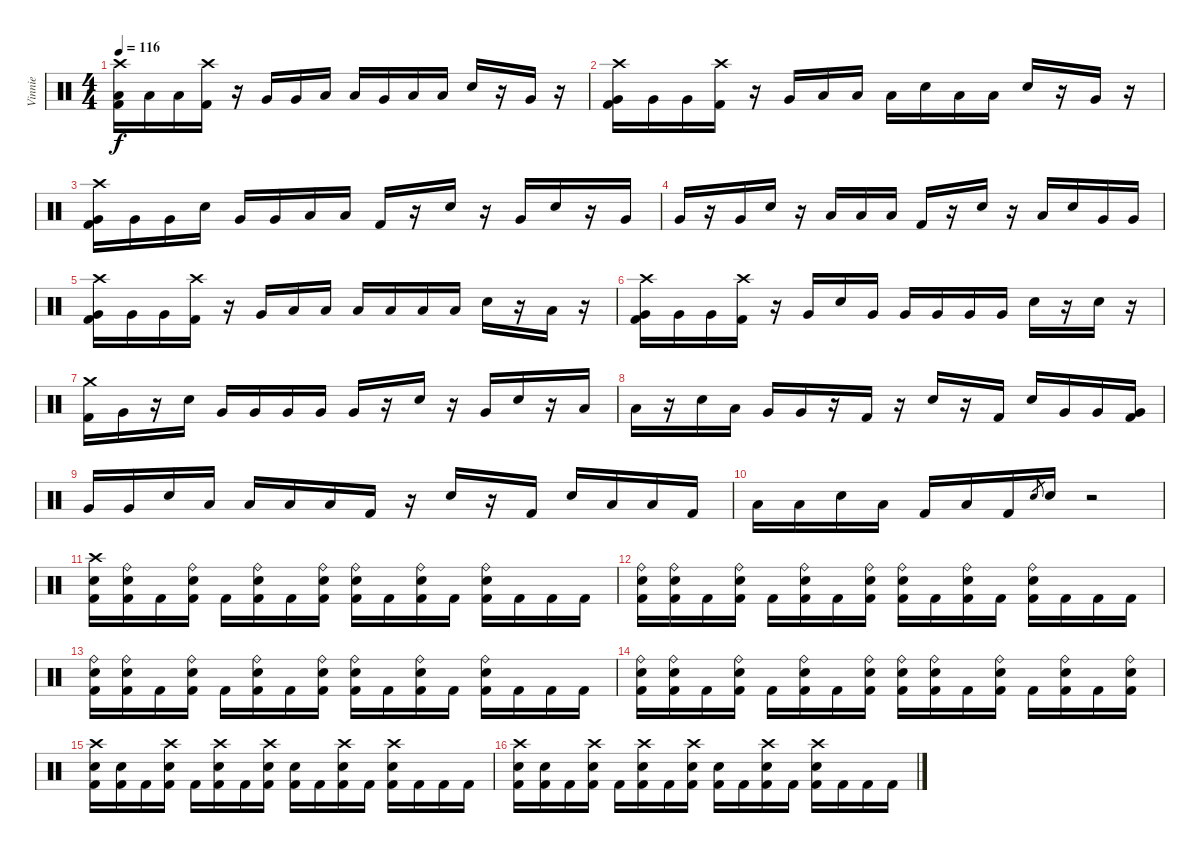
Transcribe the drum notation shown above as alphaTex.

\track ("Vinnie" "Vinnie") {instrument percussion}
\staff {score}
\articulation defaults
\ts (4 4)
\tempo 116
\clef neutral
\ks c
("Crash high (hit)" "Low Floor Tom (hit)" "Kick (hit) 2").16{dy f} "Low Floor Tom (hit)".16 "Low Floor Tom (hit)".16 ("Crash high (hit)" "Kick (hit) 2").16 r.16 "Very Low Tom (hit)".16 "Very Low Tom (hit)".16 "Low Floor Tom (hit)".16 "Low Floor Tom (hit)".16 "Very Low Tom (hit)".16 "Low Floor Tom (hit)".16 "Low Floor Tom (hit)".16 "Electric Snare (hit)".16 r.16 "Very Low Tom (hit)".16 r.16 |
("Crash high (hit)" "Very Low Tom (hit)" "Kick (hit) 2").16 "Very Low Tom (hit)".16 "Very Low Tom (hit)".16 ("Crash high (hit)" "Kick (hit) 2").16 r.16 "Very Low Tom (hit)".16 "Low Floor Tom (hit)".16 "Low Floor Tom (hit)".16 "Low Floor Tom (hit)".16 "Electric Snare (hit)".16 "Low Floor Tom (hit)".16 "Low Floor Tom (hit)".16 "Electric Snare (hit)".16 r.16 "Very Low Tom (hit)".16 r.16 |
("Crash high (hit)" "Very Low Tom (hit)" "Kick (hit) 2").16 "Very Low Tom (hit)".16 "Very Low Tom (hit)".16 "Electric Snare (hit)".16 "Very Low Tom (hit)".16 "Very Low Tom (hit)".16 "Low Floor Tom (hit)".16 "Low Floor Tom (hit)".16 "Kick (hit) 2".16 r.16 "Electric Snare (hit)".16 r.16 "Very Low Tom (hit)".16 "Electric Snare (hit)".16 r.16 "Very Low Tom (hit)".16 |
"Very Low Tom (hit)".16 r.16 "Very Low Tom (hit)".16 "Electric Snare (hit)".16 r.16 "Low Floor Tom (hit)".16 "Low Floor Tom (hit)".16 "Low Floor Tom (hit)".16 "Kick (hit) 2".16 r.16 "Electric Snare (hit)".16 r.16 "Low Floor Tom (hit)".16 "Electric Snare (hit)".16 "Very Low Tom (hit)".16 "Very Low Tom (hit)".16 |
("Crash high (hit)" "Very Low Tom (hit)" "Kick (hit) 2").16 "Very Low Tom (hit)".16 "Very Low Tom (hit)".16 ("Crash high (hit)" "Kick (hit) 2").16 r.16 "Very Low Tom (hit)".16 "Low Floor Tom (hit)".16 "Low Floor Tom (hit)".16 "Low Floor Tom (hit)".16 "Low Floor Tom (hit)".16 "Low Floor Tom (hit)".16 "Low Floor Tom (hit)".16 "Electric Snare (hit)".16 r.16 "Low Floor Tom (hit)".16 r.16 |
("Crash high (hit)" "Very Low Tom (hit)" "Kick (hit) 2").16 "Very Low Tom (hit)".16 "Very Low Tom (hit)".16 ("Crash high (hit)" "Kick (hit) 2").16 r.16 "Very Low Tom (hit)".16 "Electric Snare (hit)".16 "Very Low Tom (hit)".16 "Very Low Tom (hit)".16 "Very Low Tom (hit)".16 "Very Low Tom (hit)".16 "Very Low Tom (hit)".16 "Electric Snare (hit)".16 r.16 "Electric Snare (hit)".16 r.16 |
("Crash medium (hit)" "Kick (hit) 2").16 "Very Low Tom (hit)".16 r.16 "Electric Snare (hit)".16 "Very Low Tom (hit)".16 "Very Low Tom (hit)".16 "Very Low Tom (hit)".16 "Very Low Tom (hit)".16 "Very Low Tom (hit)".16 r.16 "Electric Snare (hit)".16 r.16 "Very Low Tom (hit)".16 "Electric Snare (hit)".16 r.16 "Low Floor Tom (hit)".16 |
"Low Floor Tom (hit)".16 r.16 "Electric Snare (hit)".16 "Low Floor Tom (hit)".16 "Very Low Tom (hit)".16 "Very Low Tom (hit)".16 r.16 "Kick (hit) 2".16 r.16 "Electric Snare (hit)".16 r.16 "Kick (hit) 2".16 "Electric Snare (hit)".16 "Very Low Tom (hit)".16 "Very Low Tom (hit)".16 ("Very Low Tom (hit)" "Kick (hit) 2").16 |
"Very Low Tom (hit)".16 "Very Low Tom (hit)".16 "Electric Snare (hit)".16 "Low Floor Tom (hit)".16 "Low Floor Tom (hit)".16 "Low Floor Tom (hit)".16 "Low Floor Tom (hit)".16 "Kick (hit) 2".16 r.16 "Electric Snare (hit)".16 r.16 "Kick (hit) 2".16 "Electric Snare (hit)".16 "Low Floor Tom (hit)".16 "Low Floor Tom (hit)".16 "Kick (hit) 2".16 |
"Low Floor Tom (hit)".16 "Low Floor Tom (hit)".16 "Electric Snare (hit)".16 "Low Floor Tom (hit)".16 "Kick (hit) 2".16 "Low Floor Tom (hit)".16 "Kick (hit) 2".16 "Electric Snare (hit)".8{gr} "Electric Snare (hit)".16 r.2 |
("Crash high (hit)" "Electric Snare (hit)" "Kick (hit) 2").16 ("Ride (bell)" "Electric Snare (hit)" "Kick (hit) 2").16 "Kick (hit) 2".16 ("Ride (bell)" "Electric Snare (hit)" "Kick (hit) 2").16 "Kick (hit) 2".16 ("Ride (bell)" "Electric Snare (hit)" "Kick (hit) 2").16 "Kick (hit) 2".16 ("Ride (bell)" "Electric Snare (hit)" "Kick (hit) 2").16 ("Ride (bell)" "Electric Snare (hit)" "Kick (hit) 2").16 "Kick (hit) 2".16 ("Ride (bell)" "Electric Snare (hit)" "Kick (hit) 2").16 "Kick (hit) 2".16 ("Ride (bell)" "Electric Snare (hit)" "Kick (hit) 2").16 "Kick (hit) 2".16 "Kick (hit) 2".16 "Kick (hit) 2".16 |
("Ride (bell)" "Electric Snare (hit)" "Kick (hit) 2").16 ("Ride (bell)" "Electric Snare (hit)" "Kick (hit) 2").16 "Kick (hit) 2".16 ("Ride (bell)" "Electric Snare (hit)" "Kick (hit) 2").16 "Kick (hit) 2".16 ("Ride (bell)" "Electric Snare (hit)" "Kick (hit) 2").16 "Kick (hit) 2".16 ("Ride (bell)" "Electric Snare (hit)" "Kick (hit) 2").16 ("Ride (bell)" "Electric Snare (hit)" "Kick (hit) 2").16 "Kick (hit) 2".16 ("Ride (bell)" "Electric Snare (hit)" "Kick (hit) 2").16 "Kick (hit) 2".16 ("Ride (bell)" "Electric Snare (hit)" "Kick (hit) 2").16 "Kick (hit) 2".16 "Kick (hit) 2".16 "Kick (hit) 2".16 |
("Ride (bell)" "Electric Snare (hit)" "Kick (hit) 2").16 ("Ride (bell)" "Electric Snare (hit)" "Kick (hit) 2").16 "Kick (hit) 2".16 ("Ride (bell)" "Electric Snare (hit)" "Kick (hit) 2").16 "Kick (hit) 2".16 ("Ride (bell)" "Electric Snare (hit)" "Kick (hit) 2").16 "Kick (hit) 2".16 ("Ride (bell)" "Electric Snare (hit)" "Kick (hit) 2").16 ("Ride (bell)" "Electric Snare (hit)" "Kick (hit) 2").16 "Kick (hit) 2".16 ("Ride (bell)" "Electric Snare (hit)" "Kick (hit) 2").16 "Kick (hit) 2".16 ("Ride (bell)" "Electric Snare (hit)" "Kick (hit) 2").16 "Kick (hit) 2".16 "Kick (hit) 2".16 "Kick (hit) 2".16 |
("Ride (bell)" "Electric Snare (hit)" "Kick (hit) 2").16 ("Ride (bell)" "Electric Snare (hit)" "Kick (hit) 2").16 "Kick (hit) 2".16 ("Ride (bell)" "Electric Snare (hit)" "Kick (hit) 2").16 "Kick (hit) 2".16 ("Ride (bell)" "Electric Snare (hit)" "Kick (hit) 2").16 "Kick (hit) 2".16 ("Ride (bell)" "Electric Snare (hit)" "Kick (hit) 2").16 ("Ride (bell)" "Electric Snare (hit)" "Kick (hit) 2").16 ("Ride (bell)" "Electric Snare (hit)" "Kick (hit) 2").16 "Kick (hit) 2".16 ("Ride (bell)" "Electric Snare (hit)" "Kick (hit) 2").16 "Kick (hit) 2".16 ("Ride (bell)" "Electric Snare (hit)" "Kick (hit) 2").16 "Kick (hit) 2".16 ("Ride (bell)" "Electric Snare (hit)" "Kick (hit) 2").16 |
("Crash high (hit)" "Electric Snare (hit)" "Kick (hit) 2").16 ("Electric Snare (hit)" "Kick (hit) 2").16 "Kick (hit) 2".16 ("Crash high (hit)" "Electric Snare (hit)" "Kick (hit) 2").16 "Kick (hit) 2".16 ("Crash high (hit)" "Electric Snare (hit)" "Kick (hit) 2").16 "Kick (hit) 2".16 ("Crash high (hit)" "Electric Snare (hit)" "Kick (hit) 2").16 ("Electric Snare (hit)" "Kick (hit) 2").16 "Kick (hit) 2".16 ("Crash high (hit)" "Electric Snare (hit)" "Kick (hit) 2").16 "Kick (hit) 2".16 ("Crash high (hit)" "Electric Snare (hit)" "Kick (hit) 2").16 "Kick (hit) 2".16 "Kick (hit) 2".16 "Kick (hit) 2".16 |
("Crash high (hit)" "Electric Snare (hit)" "Kick (hit) 2").16 ("Electric Snare (hit)" "Kick (hit) 2").16 "Kick (hit) 2".16 ("Crash high (hit)" "Electric Snare (hit)" "Kick (hit) 2").16 "Kick (hit) 2".16 ("Crash high (hit)" "Electric Snare (hit)" "Kick (hit) 2").16 "Kick (hit) 2".16 ("Crash high (hit)" "Electric Snare (hit)" "Kick (hit) 2").16 ("Electric Snare (hit)" "Kick (hit) 2").16 "Kick (hit) 2".16 ("Crash high (hit)" "Electric Snare (hit)" "Kick (hit) 2").16 "Kick (hit) 2".16 ("Crash high (hit)" "Electric Snare (hit)" "Kick (hit) 2").16 "Kick (hit) 2".16 "Kick (hit) 2".16 "Kick (hit) 2".16
